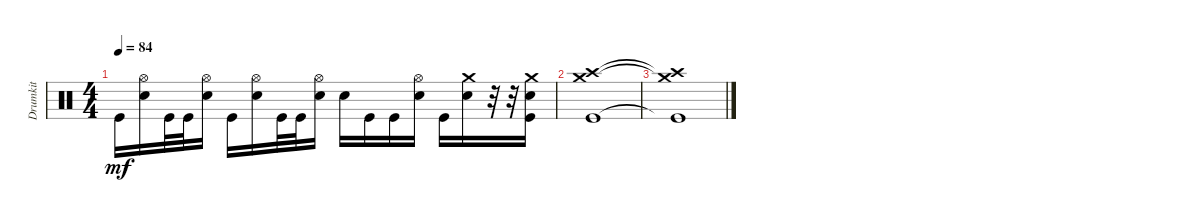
\track ("Drumkit" "Drumkit") {instrument percussion}
\staff {score}
\articulation defaults
\ts (4 4)
\tempo 84
\clef neutral
\ks c "Kick (hit)".16{dy mf}
("Snare (hit) 2" "Hi-Hat (open)").16 "Kick (hit)".32 "Kick (hit)".32 ("Snare (hit) 2" "Hi-Hat (open)").16 "Kick (hit)".16 ("Snare (hit) 2" "Hi-Hat (open)").16 "Kick (hit)".32 "Kick (hit)".32 ("Snare (hit) 2" "Hi-Hat (open)").16 "Snare (hit) 2".16 "Kick (hit)".16 "Kick (hit)".16 ("Snare (hit) 2" "Hi-Hat (open)").16 "Kick (hit)".16 ("Snare (hit) 2" "Crash medium (hit)").16 r.32 r.32 ("Snare (hit) 2" "Crash medium (hit)" "Kick (hit)").16 |
("Kick (hit)" "Crash high (hit)" "Crash medium (hit)").1 |
("Kick (hit)"{t} "Crash high (hit)"{t} "Crash medium (hit)"{t}).1
